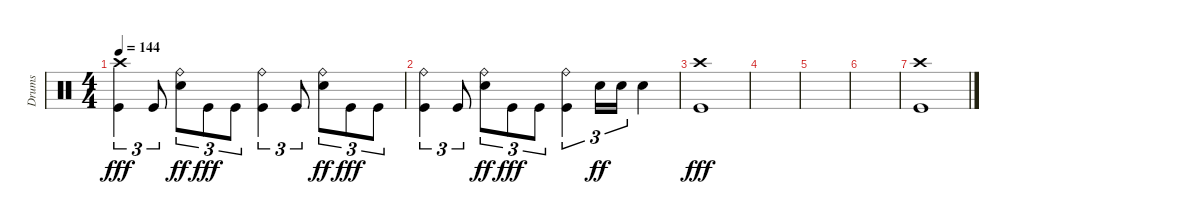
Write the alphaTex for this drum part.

\track ("Drums" "Drums") {instrument percussion}
\staff {score}
\articulation defaults
\ts (4 4)
\tempo 144
\clef neutral
\ks c
("Kick (hit)" "Crash high (hit)").4{tu (3 2) dy fff} "Kick (hit)".8{tu (3 2)} ("Ride (bell)" "Snare (hit) 2").8{tu (3 2) dy ff} "Kick (hit)".8{tu (3 2) dy fff} "Kick (hit)".8{tu (3 2)} ("Ride (bell)" "Kick (hit)").4{tu (3 2)} "Kick (hit)".8{tu (3 2)} ("Ride (bell)" "Snare (hit) 2").8{tu (3 2) dy ff} "Kick (hit)".8{tu (3 2) dy fff} "Kick (hit)".8{tu (3 2)} |
("Kick (hit)" "Ride (bell)").4{tu (3 2)} "Kick (hit)".8{tu (3 2)} ("Ride (bell)" "Snare (hit) 2").8{tu (3 2) dy ff} "Kick (hit)".8{tu (3 2) dy fff} "Kick (hit)".8{tu (3 2)} ("Ride (bell)" "Kick (hit)").4{tu (3 2)} "Snare (hit) 2".16{tu (3 2) dy ff} "Snare (hit) 2".16{tu (3 2)} "Snare (hit) 2".4 |
("Kick (hit)" "Crash high (hit)").1{dy fff} |
|
|
|
("Kick (hit)" "Crash high (hit)").1
